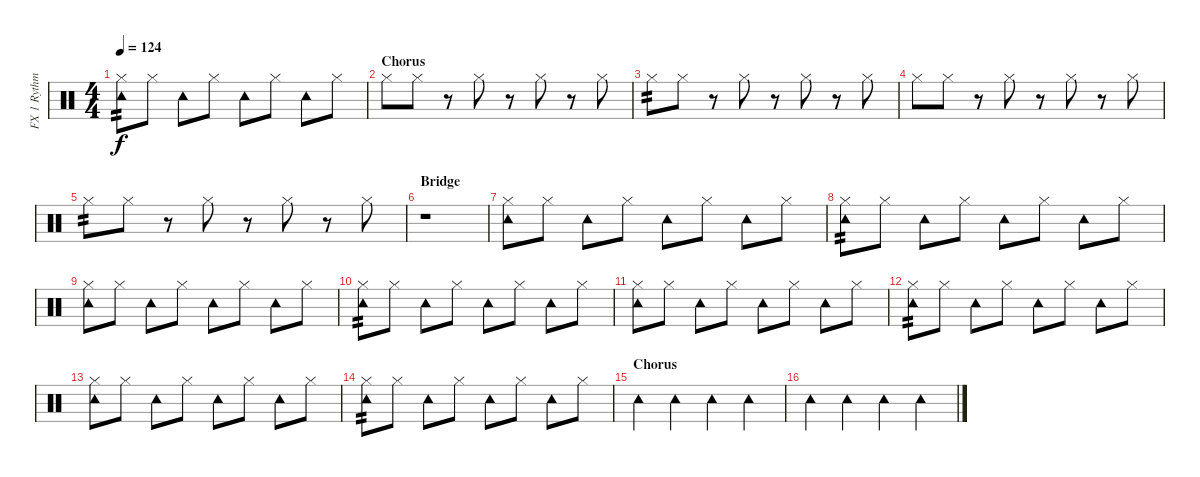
\track ("FX 1 Rythm" "FX 1 Rythm") {instrument percussion}
\staff {score}
\articulation defaults
\ts (4 4)
\tempo 124
\clef neutral
\ks c
("Tambourine (hit)" "Hi-Hat (closed)").8{tp 2 dy f} "Hi-Hat (closed)".8 "Tambourine (hit)".8 "Hi-Hat (closed)".8 "Tambourine (hit)".8 "Hi-Hat (closed)".8 "Tambourine (hit)".8 "Hi-Hat (closed)".8 |
\section ("" "Chorus")
"Hi-Hat (closed)".8 "Hi-Hat (closed)".8 r.8 "Hi-Hat (closed)".8 r.8 "Hi-Hat (closed)".8 r.8 "Hi-Hat (closed)".8 |
"Hi-Hat (closed)".8{tp 2} "Hi-Hat (closed)".8 r.8 "Hi-Hat (closed)".8 r.8 "Hi-Hat (closed)".8 r.8 "Hi-Hat (closed)".8 |
"Hi-Hat (closed)".8 "Hi-Hat (closed)".8 r.8 "Hi-Hat (closed)".8 r.8 "Hi-Hat (closed)".8 r.8 "Hi-Hat (closed)".8 |
"Hi-Hat (closed)".8{tp 2} "Hi-Hat (closed)".8 r.8 "Hi-Hat (closed)".8 r.8 "Hi-Hat (closed)".8 r.8 "Hi-Hat (closed)".8 |
\section ("" "Bridge")
r.1 |
("Tambourine (hit)" "Hi-Hat (closed)").8 "Hi-Hat (closed)".8 "Tambourine (hit)".8 "Hi-Hat (closed)".8 "Tambourine (hit)".8 "Hi-Hat (closed)".8 "Tambourine (hit)".8 "Hi-Hat (closed)".8 |
("Tambourine (hit)" "Hi-Hat (closed)").8{tp 2} "Hi-Hat (closed)".8 "Tambourine (hit)".8 "Hi-Hat (closed)".8 "Tambourine (hit)".8 "Hi-Hat (closed)".8 "Tambourine (hit)".8 "Hi-Hat (closed)".8 |
("Tambourine (hit)" "Hi-Hat (closed)").8 "Hi-Hat (closed)".8 "Tambourine (hit)".8 "Hi-Hat (closed)".8 "Tambourine (hit)".8 "Hi-Hat (closed)".8 "Tambourine (hit)".8 "Hi-Hat (closed)".8 |
("Tambourine (hit)" "Hi-Hat (closed)").8{tp 2} "Hi-Hat (closed)".8 "Tambourine (hit)".8 "Hi-Hat (closed)".8 "Tambourine (hit)".8 "Hi-Hat (closed)".8 "Tambourine (hit)".8 "Hi-Hat (closed)".8 |
("Tambourine (hit)" "Hi-Hat (closed)").8 "Hi-Hat (closed)".8 "Tambourine (hit)".8 "Hi-Hat (closed)".8 "Tambourine (hit)".8 "Hi-Hat (closed)".8 "Tambourine (hit)".8 "Hi-Hat (closed)".8 |
("Tambourine (hit)" "Hi-Hat (closed)").8{tp 2} "Hi-Hat (closed)".8 "Tambourine (hit)".8 "Hi-Hat (closed)".8 "Tambourine (hit)".8 "Hi-Hat (closed)".8 "Tambourine (hit)".8 "Hi-Hat (closed)".8 |
("Tambourine (hit)" "Hi-Hat (closed)").8 "Hi-Hat (closed)".8 "Tambourine (hit)".8 "Hi-Hat (closed)".8 "Tambourine (hit)".8 "Hi-Hat (closed)".8 "Tambourine (hit)".8 "Hi-Hat (closed)".8 |
("Tambourine (hit)" "Hi-Hat (closed)").8{tp 2} "Hi-Hat (closed)".8 "Tambourine (hit)".8 "Hi-Hat (closed)".8 "Tambourine (hit)".8 "Hi-Hat (closed)".8 "Tambourine (hit)".8 "Hi-Hat (closed)".8 |
\section ("" "Chorus")
"Tambourine (hit)".4 "Tambourine (hit)".4 "Tambourine (hit)".4 "Tambourine (hit)".4 |
"Tambourine (hit)".4 "Tambourine (hit)".4 "Tambourine (hit)".4 "Tambourine (hit)".4
